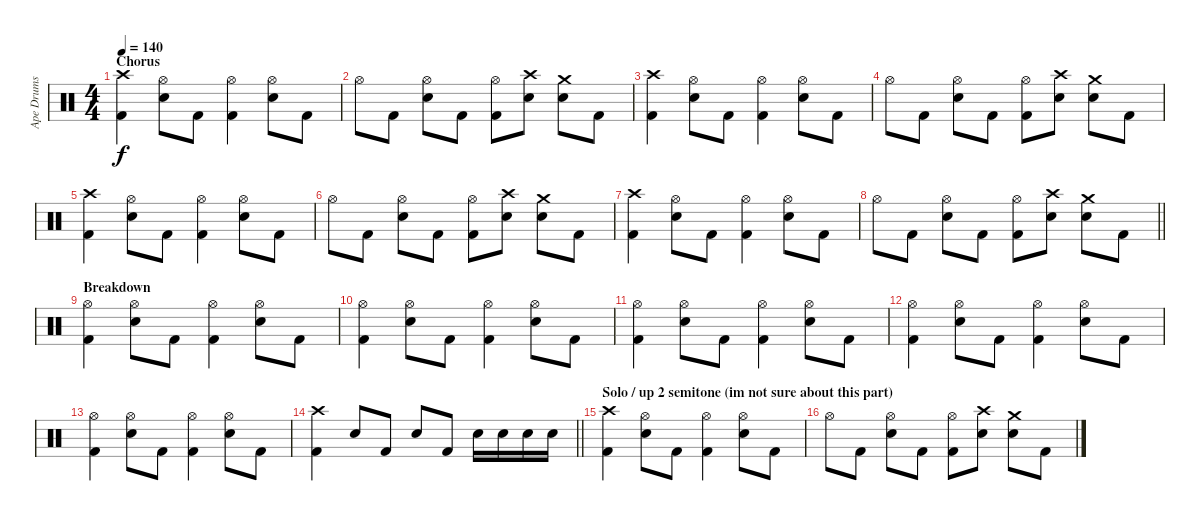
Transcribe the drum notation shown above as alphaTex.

\track ("Ape Drums" "Ape Drums") {instrument percussion}
\staff {score}
\articulation defaults
\ts (4 4)
\section ("" "Chorus")
\tempo 140
\clef neutral
\ks c
("Crash high (hit)" "Kick (hit) 2").4{dy f} ("Hi-Hat (open)" "Snare (hit) 2").8 "Kick (hit) 2".8 ("Hi-Hat (open)" "Kick (hit) 2").4 ("Hi-Hat (open)" "Snare (hit) 2").8 "Kick (hit) 2".8 |
"Hi-Hat (open)".8 "Kick (hit) 2".8 ("Hi-Hat (open)" "Snare (hit) 2").8 "Kick (hit) 2".8 ("Hi-Hat (open)" "Kick (hit) 2").8 ("Crash high (hit)" "Snare (hit) 2").8 ("Crash medium (hit)" "Snare (hit) 2").8 "Kick (hit) 2".8 |
("Crash high (hit)" "Kick (hit) 2").4 ("Hi-Hat (open)" "Snare (hit) 2").8 "Kick (hit) 2".8 ("Hi-Hat (open)" "Kick (hit) 2").4 ("Hi-Hat (open)" "Snare (hit) 2").8 "Kick (hit) 2".8 |
"Hi-Hat (open)".8 "Kick (hit) 2".8 ("Hi-Hat (open)" "Snare (hit) 2").8 "Kick (hit) 2".8 ("Hi-Hat (open)" "Kick (hit) 2").8 ("Crash high (hit)" "Snare (hit) 2").8 ("Crash medium (hit)" "Snare (hit) 2").8 "Kick (hit) 2".8 |
("Crash high (hit)" "Kick (hit) 2").4 ("Hi-Hat (open)" "Snare (hit) 2").8 "Kick (hit) 2".8 ("Hi-Hat (open)" "Kick (hit) 2").4 ("Hi-Hat (open)" "Snare (hit) 2").8 "Kick (hit) 2".8 |
"Hi-Hat (open)".8 "Kick (hit) 2".8 ("Hi-Hat (open)" "Snare (hit) 2").8 "Kick (hit) 2".8 ("Hi-Hat (open)" "Kick (hit) 2").8 ("Crash high (hit)" "Snare (hit) 2").8 ("Crash medium (hit)" "Snare (hit) 2").8 "Kick (hit) 2".8 |
("Crash high (hit)" "Kick (hit) 2").4 ("Hi-Hat (open)" "Snare (hit) 2").8 "Kick (hit) 2".8 ("Hi-Hat (open)" "Kick (hit) 2").4 ("Hi-Hat (open)" "Snare (hit) 2").8 "Kick (hit) 2".8 |
\barLineRight lightlight "Hi-Hat (open)".8 "Kick (hit) 2".8
("Hi-Hat (open)" "Snare (hit) 2").8 "Kick (hit) 2".8 ("Hi-Hat (open)" "Kick (hit) 2").8 ("Crash high (hit)" "Snare (hit) 2").8 ("Crash medium (hit)" "Snare (hit) 2").8 "Kick (hit) 2".8 |
\section ("" "Breakdown")
("Hi-Hat (open)" "Kick (hit) 2").4 ("Hi-Hat (open)" "Snare (hit) 2").8 "Kick (hit) 2".8 ("Hi-Hat (open)" "Kick (hit) 2").4 ("Hi-Hat (open)" "Snare (hit) 2").8 "Kick (hit) 2".8 |
("Hi-Hat (open)" "Kick (hit) 2").4 ("Hi-Hat (open)" "Snare (hit) 2").8 "Kick (hit) 2".8 ("Hi-Hat (open)" "Kick (hit) 2").4 ("Hi-Hat (open)" "Snare (hit) 2").8 "Kick (hit) 2".8 |
("Hi-Hat (open)" "Kick (hit) 2").4 ("Hi-Hat (open)" "Snare (hit) 2").8 "Kick (hit) 2".8 ("Hi-Hat (open)" "Kick (hit) 2").4 ("Hi-Hat (open)" "Snare (hit) 2").8 "Kick (hit) 2".8 |
("Hi-Hat (open)" "Kick (hit) 2").4 ("Hi-Hat (open)" "Snare (hit) 2").8 "Kick (hit) 2".8 ("Hi-Hat (open)" "Kick (hit) 2").4 ("Hi-Hat (open)" "Snare (hit) 2").8 "Kick (hit) 2".8 |
("Hi-Hat (open)" "Kick (hit) 2").4 ("Hi-Hat (open)" "Snare (hit) 2").8 "Kick (hit) 2".8 ("Hi-Hat (open)" "Kick (hit) 2").4 ("Hi-Hat (open)" "Snare (hit) 2").8 "Kick (hit) 2".8 |
\barLineRight lightlight
("Crash high (hit)" "Kick (hit) 2").4 "Snare (hit) 2".8 "Kick (hit) 2".8 "Snare (hit) 2".8 "Kick (hit) 2".8 "Snare (hit) 2".16 "Snare (hit) 2".16 "Snare (hit) 2".16 "Snare (hit) 2".16 |
\section ("" "Solo / up 2 semitone (im not sure about this part)")
("Crash high (hit)" "Kick (hit) 2").4 ("Hi-Hat (open)" "Snare (hit) 2").8 "Kick (hit) 2".8 ("Hi-Hat (open)" "Kick (hit) 2").4 ("Hi-Hat (open)" "Snare (hit) 2").8 "Kick (hit) 2".8 |
"Hi-Hat (open)".8 "Kick (hit) 2".8 ("Hi-Hat (open)" "Snare (hit) 2").8 "Kick (hit) 2".8 ("Hi-Hat (open)" "Kick (hit) 2").8 ("Crash high (hit)" "Snare (hit) 2").8 ("Crash medium (hit)" "Snare (hit) 2").8 "Kick (hit) 2".8
